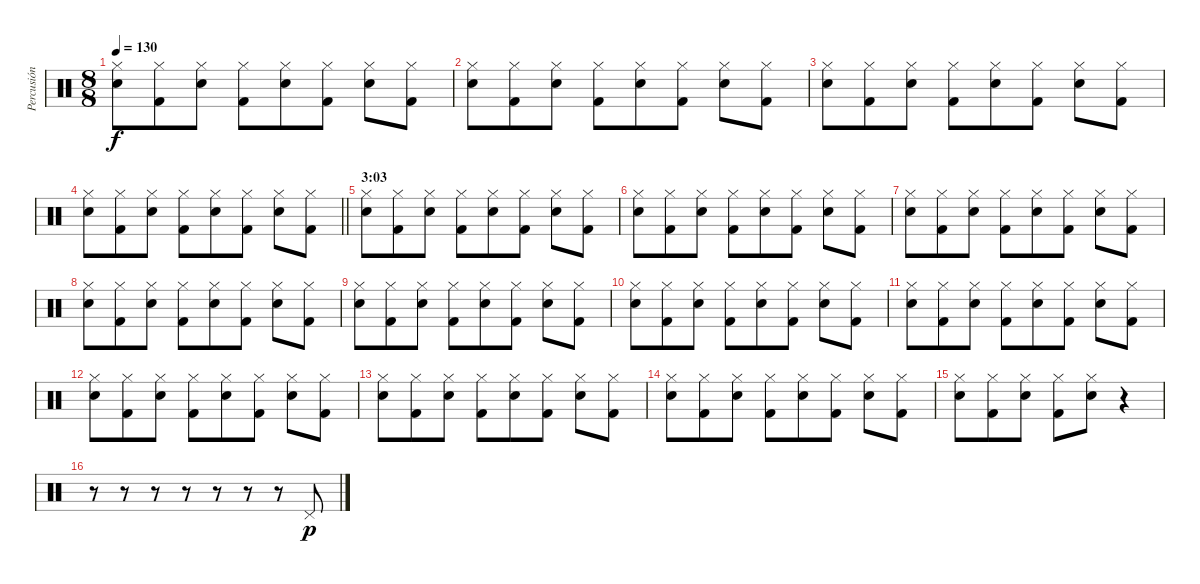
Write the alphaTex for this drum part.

\track ("Percusión" "Percusión") {instrument percussion}
\staff {score}
\articulation defaults
\ts (8 8)
\tempo 130
\clef neutral
\ks c
("Hi-Hat (closed)" "Snare (hit) 2").8{dy f} ("Hi-Hat (closed)" "Kick (hit) 2").8 ("Hi-Hat (closed)" "Snare (hit) 2").8 ("Hi-Hat (closed)" "Kick (hit) 2").8 ("Hi-Hat (closed)" "Snare (hit) 2").8 ("Hi-Hat (closed)" "Kick (hit) 2").8 ("Hi-Hat (closed)" "Snare (hit) 2").8 ("Hi-Hat (closed)" "Kick (hit) 2").8 |
("Hi-Hat (closed)" "Snare (hit) 2").8 ("Hi-Hat (closed)" "Kick (hit) 2").8 ("Hi-Hat (closed)" "Snare (hit) 2").8 ("Hi-Hat (closed)" "Kick (hit) 2").8 ("Hi-Hat (closed)" "Snare (hit) 2").8 ("Hi-Hat (closed)" "Kick (hit) 2").8 ("Hi-Hat (closed)" "Snare (hit) 2").8 ("Hi-Hat (closed)" "Kick (hit) 2").8 |
("Hi-Hat (closed)" "Snare (hit) 2").8 ("Hi-Hat (closed)" "Kick (hit) 2").8 ("Hi-Hat (closed)" "Snare (hit) 2").8 ("Hi-Hat (closed)" "Kick (hit) 2").8 ("Hi-Hat (closed)" "Snare (hit) 2").8 ("Hi-Hat (closed)" "Kick (hit) 2").8 ("Hi-Hat (closed)" "Snare (hit) 2").8 ("Hi-Hat (closed)" "Kick (hit) 2").8 |
\barLineRight lightlight
("Hi-Hat (closed)" "Snare (hit) 2").8 ("Hi-Hat (closed)" "Kick (hit) 2").8 ("Hi-Hat (closed)" "Snare (hit) 2").8 ("Hi-Hat (closed)" "Kick (hit) 2").8 ("Hi-Hat (closed)" "Snare (hit) 2").8 ("Hi-Hat (closed)" "Kick (hit) 2").8 ("Hi-Hat (closed)" "Snare (hit) 2").8 ("Hi-Hat (closed)" "Kick (hit) 2").8 |
\section ("" "3:03")
("Hi-Hat (closed)" "Snare (hit) 2").8 ("Hi-Hat (closed)" "Kick (hit) 2").8 ("Hi-Hat (closed)" "Snare (hit) 2").8 ("Hi-Hat (closed)" "Kick (hit) 2").8 ("Hi-Hat (closed)" "Snare (hit) 2").8 ("Hi-Hat (closed)" "Kick (hit) 2").8 ("Hi-Hat (closed)" "Snare (hit) 2").8 ("Hi-Hat (closed)" "Kick (hit) 2").8 |
("Hi-Hat (closed)" "Snare (hit) 2").8 ("Hi-Hat (closed)" "Kick (hit) 2").8 ("Hi-Hat (closed)" "Snare (hit) 2").8 ("Hi-Hat (closed)" "Kick (hit) 2").8 ("Hi-Hat (closed)" "Snare (hit) 2").8 ("Hi-Hat (closed)" "Kick (hit) 2").8 ("Hi-Hat (closed)" "Snare (hit) 2").8 ("Hi-Hat (closed)" "Kick (hit) 2").8 |
("Hi-Hat (closed)" "Snare (hit) 2").8 ("Hi-Hat (closed)" "Kick (hit) 2").8 ("Hi-Hat (closed)" "Snare (hit) 2").8 ("Hi-Hat (closed)" "Kick (hit) 2").8 ("Hi-Hat (closed)" "Snare (hit) 2").8 ("Hi-Hat (closed)" "Kick (hit) 2").8 ("Hi-Hat (closed)" "Snare (hit) 2").8 ("Hi-Hat (closed)" "Kick (hit) 2").8 |
("Hi-Hat (closed)" "Snare (hit) 2").8 ("Hi-Hat (closed)" "Kick (hit) 2").8 ("Hi-Hat (closed)" "Snare (hit) 2").8 ("Hi-Hat (closed)" "Kick (hit) 2").8 ("Hi-Hat (closed)" "Snare (hit) 2").8 ("Hi-Hat (closed)" "Kick (hit) 2").8 ("Hi-Hat (closed)" "Snare (hit) 2").8 ("Hi-Hat (closed)" "Kick (hit) 2").8 |
("Hi-Hat (closed)" "Snare (hit) 2").8 ("Hi-Hat (closed)" "Kick (hit) 2").8 ("Hi-Hat (closed)" "Snare (hit) 2").8 ("Hi-Hat (closed)" "Kick (hit) 2").8 ("Hi-Hat (closed)" "Snare (hit) 2").8 ("Hi-Hat (closed)" "Kick (hit) 2").8 ("Hi-Hat (closed)" "Snare (hit) 2").8 ("Hi-Hat (closed)" "Kick (hit) 2").8 |
("Hi-Hat (closed)" "Snare (hit) 2").8 ("Hi-Hat (closed)" "Kick (hit) 2").8 ("Hi-Hat (closed)" "Snare (hit) 2").8 ("Hi-Hat (closed)" "Kick (hit) 2").8 ("Hi-Hat (closed)" "Snare (hit) 2").8 ("Hi-Hat (closed)" "Kick (hit) 2").8 ("Hi-Hat (closed)" "Snare (hit) 2").8 ("Hi-Hat (closed)" "Kick (hit) 2").8 |
("Hi-Hat (closed)" "Snare (hit) 2").8 ("Hi-Hat (closed)" "Kick (hit) 2").8 ("Hi-Hat (closed)" "Snare (hit) 2").8 ("Hi-Hat (closed)" "Kick (hit) 2").8 ("Hi-Hat (closed)" "Snare (hit) 2").8 ("Hi-Hat (closed)" "Kick (hit) 2").8 ("Hi-Hat (closed)" "Snare (hit) 2").8 ("Hi-Hat (closed)" "Kick (hit) 2").8 |
("Hi-Hat (closed)" "Snare (hit) 2").8 ("Hi-Hat (closed)" "Kick (hit) 2").8 ("Hi-Hat (closed)" "Snare (hit) 2").8 ("Hi-Hat (closed)" "Kick (hit) 2").8 ("Hi-Hat (closed)" "Snare (hit) 2").8 ("Hi-Hat (closed)" "Kick (hit) 2").8 ("Hi-Hat (closed)" "Snare (hit) 2").8 ("Hi-Hat (closed)" "Kick (hit) 2").8 |
("Hi-Hat (closed)" "Snare (hit) 2").8 ("Hi-Hat (closed)" "Kick (hit) 2").8 ("Hi-Hat (closed)" "Snare (hit) 2").8 ("Hi-Hat (closed)" "Kick (hit) 2").8 ("Hi-Hat (closed)" "Snare (hit) 2").8 ("Hi-Hat (closed)" "Kick (hit) 2").8 ("Hi-Hat (closed)" "Snare (hit) 2").8 ("Hi-Hat (closed)" "Kick (hit) 2").8 |
("Hi-Hat (closed)" "Snare (hit) 2").8 ("Hi-Hat (closed)" "Kick (hit) 2").8 ("Hi-Hat (closed)" "Snare (hit) 2").8 ("Hi-Hat (closed)" "Kick (hit) 2").8 ("Hi-Hat (closed)" "Snare (hit) 2").8 ("Hi-Hat (closed)" "Kick (hit) 2").8 ("Hi-Hat (closed)" "Snare (hit) 2").8 ("Hi-Hat (closed)" "Kick (hit) 2").8 |
("Hi-Hat (closed)" "Snare (hit) 2").8 ("Hi-Hat (closed)" "Kick (hit) 2").8 ("Hi-Hat (closed)" "Snare (hit) 2").8 ("Hi-Hat (closed)" "Kick (hit) 2").8 ("Hi-Hat (closed)" "Snare (hit) 2").8 r.4 |
r.8 r.8 r.8 r.8 r.8 r.8 r.8 "Pedal Hi-Hat (hit)".8{dy p}
